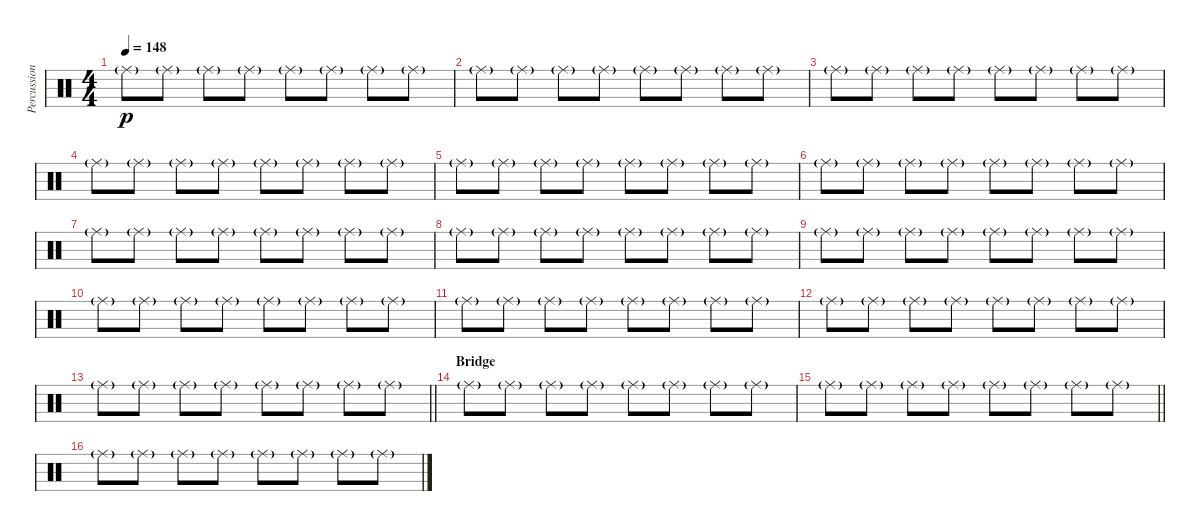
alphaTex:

\track ("Percussions" "Percussion") {instrument percussion}
\staff {score}
\articulation defaults
\ts (4 4)
\tempo 148
\clef neutral
\ks c "Ride (middle)"{g}.8{dy p} "Ride (middle)"{g}.8 "Ride (middle)"{g}.8 "Ride (middle)"{g}.8 "Ride (middle)"{g}.8 "Ride (middle)"{g}.8 "Ride (middle)"{g}.8 "Ride (middle)"{g}.8
|
"Ride (middle)"{g}.8 "Ride (middle)"{g}.8 "Ride (middle)"{g}.8 "Ride (middle)"{g}.8 "Ride (middle)"{g}.8 "Ride (middle)"{g}.8 "Ride (middle)"{g}.8 "Ride (middle)"{g}.8 |
"Ride (middle)"{g}.8 "Ride (middle)"{g}.8 "Ride (middle)"{g}.8 "Ride (middle)"{g}.8 "Ride (middle)"{g}.8 "Ride (middle)"{g}.8 "Ride (middle)"{g}.8 "Ride (middle)"{g}.8 |
"Ride (middle)"{g}.8 "Ride (middle)"{g}.8 "Ride (middle)"{g}.8 "Ride (middle)"{g}.8 "Ride (middle)"{g}.8 "Ride (middle)"{g}.8 "Ride (middle)"{g}.8 "Ride (middle)"{g}.8 |
"Ride (middle)"{g}.8 "Ride (middle)"{g}.8 "Ride (middle)"{g}.8 "Ride (middle)"{g}.8 "Ride (middle)"{g}.8 "Ride (middle)"{g}.8 "Ride (middle)"{g}.8 "Ride (middle)"{g}.8 |
"Ride (middle)"{g}.8 "Ride (middle)"{g}.8 "Ride (middle)"{g}.8 "Ride (middle)"{g}.8 "Ride (middle)"{g}.8 "Ride (middle)"{g}.8 "Ride (middle)"{g}.8 "Ride (middle)"{g}.8 |
"Ride (middle)"{g}.8 "Ride (middle)"{g}.8 "Ride (middle)"{g}.8 "Ride (middle)"{g}.8 "Ride (middle)"{g}.8 "Ride (middle)"{g}.8 "Ride (middle)"{g}.8 "Ride (middle)"{g}.8 |
"Ride (middle)"{g}.8 "Ride (middle)"{g}.8 "Ride (middle)"{g}.8 "Ride (middle)"{g}.8 "Ride (middle)"{g}.8 "Ride (middle)"{g}.8 "Ride (middle)"{g}.8 "Ride (middle)"{g}.8 |
"Ride (middle)"{g}.8 "Ride (middle)"{g}.8 "Ride (middle)"{g}.8 "Ride (middle)"{g}.8 "Ride (middle)"{g}.8 "Ride (middle)"{g}.8 "Ride (middle)"{g}.8 "Ride (middle)"{g}.8 |
"Ride (middle)"{g}.8 "Ride (middle)"{g}.8 "Ride (middle)"{g}.8 "Ride (middle)"{g}.8 "Ride (middle)"{g}.8 "Ride (middle)"{g}.8 "Ride (middle)"{g}.8 "Ride (middle)"{g}.8 |
"Ride (middle)"{g}.8 "Ride (middle)"{g}.8 "Ride (middle)"{g}.8 "Ride (middle)"{g}.8 "Ride (middle)"{g}.8 "Ride (middle)"{g}.8 "Ride (middle)"{g}.8 "Ride (middle)"{g}.8 |
"Ride (middle)"{g}.8 "Ride (middle)"{g}.8 "Ride (middle)"{g}.8 "Ride (middle)"{g}.8 "Ride (middle)"{g}.8 "Ride (middle)"{g}.8 "Ride (middle)"{g}.8 "Ride (middle)"{g}.8 |
\barLineRight lightlight "Ride (middle)"{g}.8 "Ride (middle)"{g}.8 "Ride (middle)"{g}.8 "Ride (middle)"{g}.8 "Ride (middle)"{g}.8 "Ride (middle)"{g}.8 "Ride (middle)"{g}.8 "Ride (middle)"{g}.8
|
\section ("" "Bridge")
"Ride (middle)"{g}.8 "Ride (middle)"{g}.8 "Ride (middle)"{g}.8 "Ride (middle)"{g}.8 "Ride (middle)"{g}.8 "Ride (middle)"{g}.8 "Ride (middle)"{g}.8 "Ride (middle)"{g}.8 |
\barLineRight lightlight "Ride (middle)"{g}.8 "Ride (middle)"{g}.8 "Ride (middle)"{g}.8 "Ride (middle)"{g}.8 "Ride (middle)"{g}.8 "Ride (middle)"{g}.8 "Ride (middle)"{g}.8 "Ride (middle)"{g}.8
|
"Ride (middle)"{g}.8 "Ride (middle)"{g}.8 "Ride (middle)"{g}.8 "Ride (middle)"{g}.8 "Ride (middle)"{g}.8 "Ride (middle)"{g}.8 "Ride (middle)"{g}.8 "Ride (middle)"{g}.8
